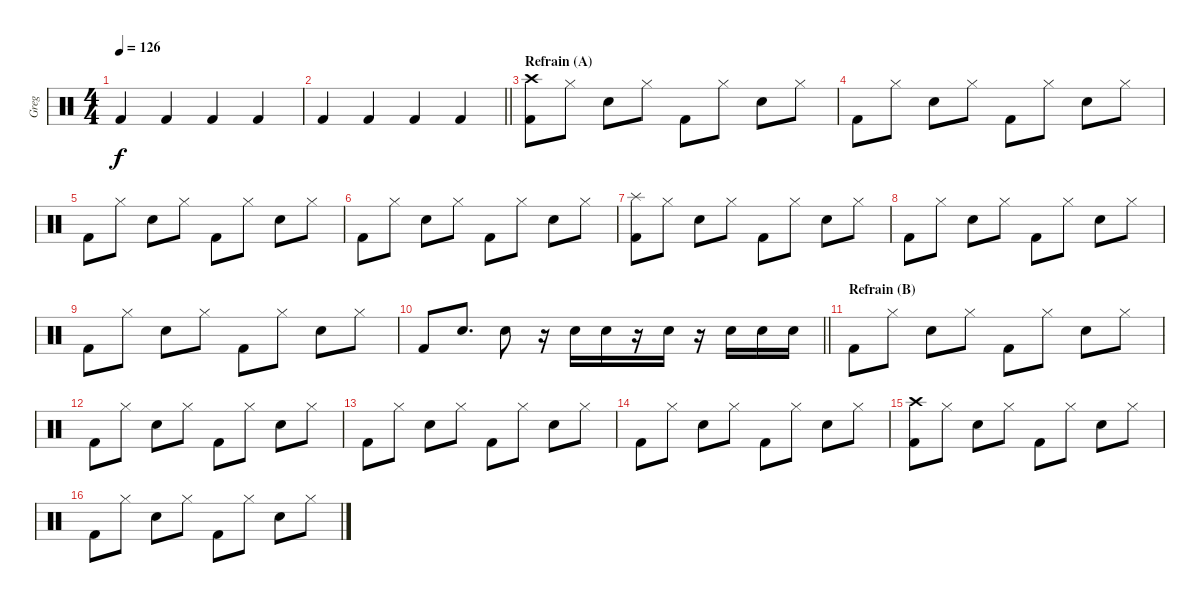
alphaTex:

\track ("Greg" "Greg") {instrument percussion}
\staff {score}
\articulation defaults
\ts (4 4)
\tempo 126
\clef neutral
\ks c "Kick (hit) 2".4{dy f} "Kick (hit) 2".4 "Kick (hit) 2".4 "Kick (hit) 2".4
|
\barLineRight lightlight "Kick (hit) 2".4 "Kick (hit) 2".4 "Kick (hit) 2".4 "Kick (hit) 2".4
|
\section ("" "Refrain (A)")
("Crash high (hit)" "Kick (hit) 2").8 "Hi-Hat (closed)".8 "Electric Snare (hit)".8 "Hi-Hat (closed)".8 "Kick (hit) 2".8 "Hi-Hat (closed)".8 "Electric Snare (hit)".8 "Hi-Hat (closed)".8 |
"Kick (hit) 2".8 "Hi-Hat (closed)".8 "Electric Snare (hit)".8 "Hi-Hat (closed)".8 "Kick (hit) 2".8 "Hi-Hat (closed)".8 "Electric Snare (hit)".8 "Hi-Hat (closed)".8 |
"Kick (hit) 2".8 "Hi-Hat (closed)".8 "Electric Snare (hit)".8 "Hi-Hat (closed)".8 "Kick (hit) 2".8 "Hi-Hat (closed)".8 "Electric Snare (hit)".8 "Hi-Hat (closed)".8 |
"Kick (hit) 2".8 "Hi-Hat (closed)".8 "Electric Snare (hit)".8 "Hi-Hat (closed)".8 "Kick (hit) 2".8 "Hi-Hat (closed)".8 "Electric Snare (hit)".8 "Hi-Hat (closed)".8 |
("Splash (hit)" "Kick (hit) 2").8 "Hi-Hat (closed)".8 "Electric Snare (hit)".8 "Hi-Hat (closed)".8 "Kick (hit) 2".8 "Hi-Hat (closed)".8 "Electric Snare (hit)".8 "Hi-Hat (closed)".8 |
"Kick (hit) 2".8 "Hi-Hat (closed)".8 "Electric Snare (hit)".8 "Hi-Hat (closed)".8 "Kick (hit) 2".8 "Hi-Hat (closed)".8 "Electric Snare (hit)".8 "Hi-Hat (closed)".8 |
"Kick (hit) 2".8 "Hi-Hat (closed)".8 "Electric Snare (hit)".8 "Hi-Hat (closed)".8 "Kick (hit) 2".8 "Hi-Hat (closed)".8 "Electric Snare (hit)".8 "Hi-Hat (closed)".8 |
\barLineRight lightlight "Kick (hit) 2".8 "Electric Snare (hit)".8{d} "Electric Snare (hit)".8
r.16 "Electric Snare (hit)".16 "Electric Snare (hit)".16 r.16 "Electric Snare (hit)".16 r.16 "Electric Snare (hit)".16 "Electric Snare (hit)".16 "Electric Snare (hit)".16 |
\section ("" "Refrain (B)")
"Kick (hit) 2".8 "Hi-Hat (closed)".8 "Electric Snare (hit)".8 "Hi-Hat (closed)".8 "Kick (hit) 2".8 "Hi-Hat (closed)".8 "Electric Snare (hit)".8 "Hi-Hat (closed)".8 |
"Kick (hit) 2".8 "Hi-Hat (closed)".8 "Electric Snare (hit)".8 "Hi-Hat (closed)".8 "Kick (hit) 2".8 "Hi-Hat (closed)".8 "Electric Snare (hit)".8 "Hi-Hat (closed)".8 |
"Kick (hit) 2".8 "Hi-Hat (closed)".8 "Electric Snare (hit)".8 "Hi-Hat (closed)".8 "Kick (hit) 2".8 "Hi-Hat (closed)".8 "Electric Snare (hit)".8 "Hi-Hat (closed)".8 |
"Kick (hit) 2".8 "Hi-Hat (closed)".8 "Electric Snare (hit)".8 "Hi-Hat (closed)".8 "Kick (hit) 2".8 "Hi-Hat (closed)".8 "Electric Snare (hit)".8 "Hi-Hat (closed)".8 |
("Crash high (hit)" "Kick (hit) 2").8 "Hi-Hat (closed)".8 "Electric Snare (hit)".8 "Hi-Hat (closed)".8 "Kick (hit) 2".8 "Hi-Hat (closed)".8 "Electric Snare (hit)".8 "Hi-Hat (closed)".8 |
"Kick (hit) 2".8 "Hi-Hat (closed)".8 "Electric Snare (hit)".8 "Hi-Hat (closed)".8 "Kick (hit) 2".8 "Hi-Hat (closed)".8 "Electric Snare (hit)".8 "Hi-Hat (closed)".8
